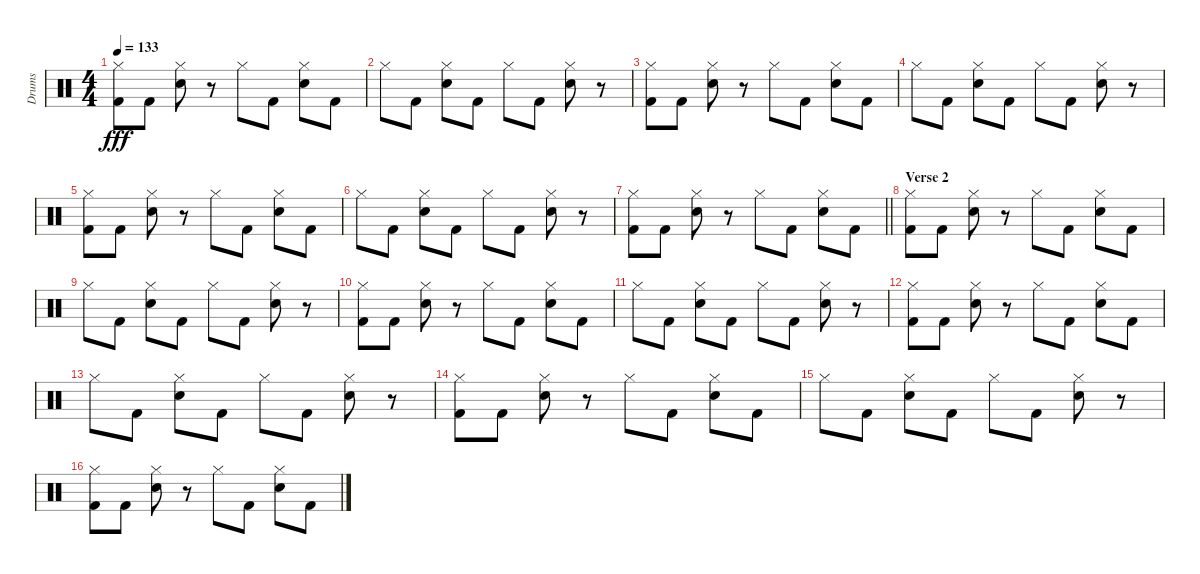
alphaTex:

\track ("Drums" "Drums") {instrument percussion}
\staff {score}
\articulation defaults
\ts (4 4)
\tempo 133
\clef neutral
\ks c
("Hi-Hat (closed)" "Kick (hit) 2").8{dy fff} "Kick (hit) 2".8 ("Hi-Hat (closed)" "Snare (hit) 2").8 r.8 "Hi-Hat (closed)".8 "Kick (hit) 2".8 ("Hi-Hat (closed)" "Snare (hit) 2").8 "Kick (hit) 2".8 |
"Hi-Hat (closed)".8 "Kick (hit) 2".8 ("Hi-Hat (closed)" "Snare (hit) 2").8 "Kick (hit) 2".8 "Hi-Hat (closed)".8 "Kick (hit) 2".8 ("Hi-Hat (closed)" "Snare (hit) 2").8 r.8 |
("Hi-Hat (closed)" "Kick (hit) 2").8 "Kick (hit) 2".8 ("Hi-Hat (closed)" "Snare (hit) 2").8 r.8 "Hi-Hat (closed)".8 "Kick (hit) 2".8 ("Hi-Hat (closed)" "Snare (hit) 2").8 "Kick (hit) 2".8 |
"Hi-Hat (closed)".8 "Kick (hit) 2".8 ("Hi-Hat (closed)" "Snare (hit) 2").8 "Kick (hit) 2".8 "Hi-Hat (closed)".8 "Kick (hit) 2".8 ("Hi-Hat (closed)" "Snare (hit) 2").8 r.8 |
("Hi-Hat (closed)" "Kick (hit) 2").8 "Kick (hit) 2".8 ("Hi-Hat (closed)" "Snare (hit) 2").8 r.8 "Hi-Hat (closed)".8 "Kick (hit) 2".8 ("Hi-Hat (closed)" "Snare (hit) 2").8 "Kick (hit) 2".8 |
"Hi-Hat (closed)".8 "Kick (hit) 2".8 ("Hi-Hat (closed)" "Snare (hit) 2").8 "Kick (hit) 2".8 "Hi-Hat (closed)".8 "Kick (hit) 2".8 ("Hi-Hat (closed)" "Snare (hit) 2").8 r.8 |
\barLineRight lightlight
("Hi-Hat (closed)" "Kick (hit) 2").8 "Kick (hit) 2".8 ("Hi-Hat (closed)" "Snare (hit) 2").8 r.8 "Hi-Hat (closed)".8 "Kick (hit) 2".8 ("Hi-Hat (closed)" "Snare (hit) 2").8 "Kick (hit) 2".8 |
\section ("" "Verse 2")
("Hi-Hat (closed)" "Kick (hit) 2").8 "Kick (hit) 2".8 ("Hi-Hat (closed)" "Snare (hit) 2").8 r.8 "Hi-Hat (closed)".8 "Kick (hit) 2".8 ("Hi-Hat (closed)" "Snare (hit) 2").8 "Kick (hit) 2".8 |
"Hi-Hat (closed)".8 "Kick (hit) 2".8 ("Hi-Hat (closed)" "Snare (hit) 2").8 "Kick (hit) 2".8 "Hi-Hat (closed)".8 "Kick (hit) 2".8 ("Hi-Hat (closed)" "Snare (hit) 2").8 r.8 |
("Hi-Hat (closed)" "Kick (hit) 2").8 "Kick (hit) 2".8 ("Hi-Hat (closed)" "Snare (hit) 2").8 r.8 "Hi-Hat (closed)".8 "Kick (hit) 2".8 ("Hi-Hat (closed)" "Snare (hit) 2").8 "Kick (hit) 2".8 |
"Hi-Hat (closed)".8 "Kick (hit) 2".8 ("Hi-Hat (closed)" "Snare (hit) 2").8 "Kick (hit) 2".8 "Hi-Hat (closed)".8 "Kick (hit) 2".8 ("Hi-Hat (closed)" "Snare (hit) 2").8 r.8 |
("Hi-Hat (closed)" "Kick (hit) 2").8 "Kick (hit) 2".8 ("Hi-Hat (closed)" "Snare (hit) 2").8 r.8 "Hi-Hat (closed)".8 "Kick (hit) 2".8 ("Hi-Hat (closed)" "Snare (hit) 2").8 "Kick (hit) 2".8 |
"Hi-Hat (closed)".8 "Kick (hit) 2".8 ("Hi-Hat (closed)" "Snare (hit) 2").8 "Kick (hit) 2".8 "Hi-Hat (closed)".8 "Kick (hit) 2".8 ("Hi-Hat (closed)" "Snare (hit) 2").8 r.8 |
("Hi-Hat (closed)" "Kick (hit) 2").8 "Kick (hit) 2".8 ("Hi-Hat (closed)" "Snare (hit) 2").8 r.8 "Hi-Hat (closed)".8 "Kick (hit) 2".8 ("Hi-Hat (closed)" "Snare (hit) 2").8 "Kick (hit) 2".8 |
"Hi-Hat (closed)".8 "Kick (hit) 2".8 ("Hi-Hat (closed)" "Snare (hit) 2").8 "Kick (hit) 2".8 "Hi-Hat (closed)".8 "Kick (hit) 2".8 ("Hi-Hat (closed)" "Snare (hit) 2").8 r.8 |
("Hi-Hat (closed)" "Kick (hit) 2").8 "Kick (hit) 2".8 ("Hi-Hat (closed)" "Snare (hit) 2").8 r.8 "Hi-Hat (closed)".8 "Kick (hit) 2".8 ("Hi-Hat (closed)" "Snare (hit) 2").8 "Kick (hit) 2".8
